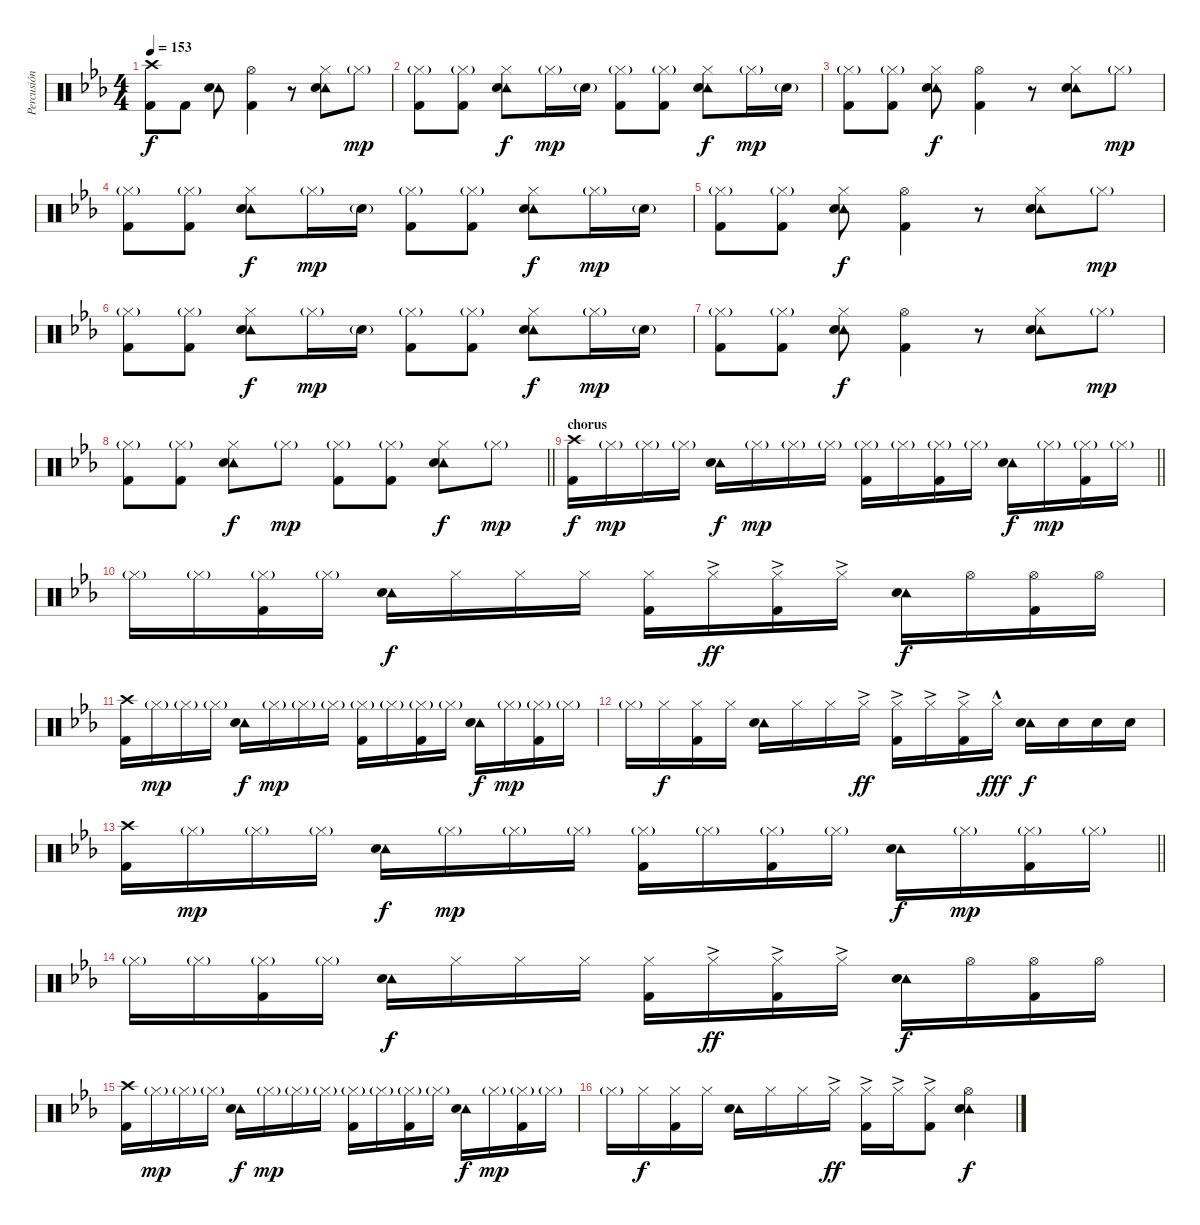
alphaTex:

\track ("Percusión" "Percusión") {instrument percussion}
\staff {score}
\articulation defaults
\ts (4 4)
\tempo 153
\clef neutral
\ks eb
("Crash high (hit)" "Kick (hit) 2").8{dy f} "Kick (hit) 2".8 ("Tambourine (hit)" "Snare (hit) 2").8 ("Hi-Hat (open)" "Kick (hit) 2").4 r.8 ("Tambourine (hit)" "Hi-Hat (closed)" "Snare (hit) 2").8 "Hi-Hat (closed)"{g}.8{dy mp} |
("Hi-Hat (closed)"{g} "Kick (hit) 2").8 ("Hi-Hat (closed)"{g} "Kick (hit) 2").8 ("Tambourine (hit)" "Hi-Hat (closed)" "Snare (hit) 2").8{dy f} "Hi-Hat (closed)"{g}.16{dy mp} "Snare (hit) 2"{g}.16 ("Hi-Hat (closed)"{g} "Kick (hit) 2").8 ("Hi-Hat (closed)"{g} "Kick (hit) 2").8 ("Tambourine (hit)" "Hi-Hat (closed)" "Snare (hit) 2").8{dy f} "Hi-Hat (closed)"{g}.16{dy mp} "Snare (hit) 2"{g}.16 |
("Hi-Hat (closed)"{g} "Kick (hit) 2").8 ("Hi-Hat (closed)"{g} "Kick (hit) 2").8 ("Tambourine (hit)" "Hi-Hat (closed)" "Snare (hit) 2").8{dy f} ("Hi-Hat (open)" "Kick (hit) 2").4 r.8 ("Tambourine (hit)" "Hi-Hat (closed)" "Snare (hit) 2").8 "Hi-Hat (closed)"{g}.8{dy mp} |
("Hi-Hat (closed)"{g} "Kick (hit) 2").8 ("Hi-Hat (closed)"{g} "Kick (hit) 2").8 ("Tambourine (hit)" "Hi-Hat (closed)" "Snare (hit) 2").8{dy f} "Hi-Hat (closed)"{g}.16{dy mp} "Snare (hit) 2"{g}.16 ("Hi-Hat (closed)"{g} "Kick (hit) 2").8 ("Hi-Hat (closed)"{g} "Kick (hit) 2").8 ("Tambourine (hit)" "Hi-Hat (closed)" "Snare (hit) 2").8{dy f} "Hi-Hat (closed)"{g}.16{dy mp} "Snare (hit) 2"{g}.16 |
("Hi-Hat (closed)"{g} "Kick (hit) 2").8 ("Hi-Hat (closed)"{g} "Kick (hit) 2").8 ("Tambourine (hit)" "Hi-Hat (closed)" "Snare (hit) 2").8{dy f} ("Hi-Hat (open)" "Kick (hit) 2").4 r.8 ("Tambourine (hit)" "Hi-Hat (closed)" "Snare (hit) 2").8 "Hi-Hat (closed)"{g}.8{dy mp} |
("Hi-Hat (closed)"{g} "Kick (hit) 2").8 ("Hi-Hat (closed)"{g} "Kick (hit) 2").8 ("Tambourine (hit)" "Hi-Hat (closed)" "Snare (hit) 2").8{dy f} "Hi-Hat (closed)"{g}.16{dy mp} "Snare (hit) 2"{g}.16 ("Hi-Hat (closed)"{g} "Kick (hit) 2").8 ("Hi-Hat (closed)"{g} "Kick (hit) 2").8 ("Tambourine (hit)" "Hi-Hat (closed)" "Snare (hit) 2").8{dy f} "Hi-Hat (closed)"{g}.16{dy mp} "Snare (hit) 2"{g}.16 |
("Hi-Hat (closed)"{g} "Kick (hit) 2").8 ("Hi-Hat (closed)"{g} "Kick (hit) 2").8 ("Tambourine (hit)" "Hi-Hat (closed)" "Snare (hit) 2").8{dy f} ("Hi-Hat (open)" "Kick (hit) 2").4 r.8 ("Tambourine (hit)" "Hi-Hat (closed)" "Snare (hit) 2").8 "Hi-Hat (closed)"{g}.8{dy mp} |
\barLineRight lightlight
("Hi-Hat (closed)"{g} "Kick (hit) 2").8 ("Hi-Hat (closed)"{g} "Kick (hit) 2").8 ("Tambourine (hit)" "Hi-Hat (closed)" "Snare (hit) 2").8{dy f} "Hi-Hat (closed)"{g}.8{dy mp} ("Hi-Hat (closed)"{g} "Kick (hit) 2").8 ("Hi-Hat (closed)"{g} "Kick (hit) 2").8 ("Tambourine (hit)" "Hi-Hat (closed)" "Snare (hit) 2").8{dy f} "Hi-Hat (closed)"{g}.8{dy mp} |
\section ("" "chorus")
\barLineRight lightlight
("Crash high (hit)" "Kick (hit) 2").16{dy f} "Hi-Hat (closed)"{g}.16{dy mp} "Hi-Hat (closed)"{g}.16 "Hi-Hat (closed)"{g}.16 ("Tambourine (hit)" "Snare (hit) 2").16{dy f} "Hi-Hat (closed)"{g}.16{dy mp} "Hi-Hat (closed)"{g}.16 "Hi-Hat (closed)"{g}.16 ("Hi-Hat (closed)"{g} "Kick (hit) 2").16 "Hi-Hat (closed)"{g}.16 ("Hi-Hat (closed)"{g} "Kick (hit) 2").16 "Hi-Hat (closed)"{g}.16 ("Tambourine (hit)" "Snare (hit) 2").16{dy f} "Hi-Hat (closed)"{g}.16{dy mp} ("Hi-Hat (closed)"{g} "Kick (hit) 2").16 "Hi-Hat (closed)"{g}.16 |
"Hi-Hat (closed)"{g}.16 "Hi-Hat (closed)"{g}.16 ("Hi-Hat (closed)"{g} "Kick (hit) 2").16 "Hi-Hat (closed)"{g}.16 ("Tambourine (hit)" "Snare (hit) 2").16{dy f} "Hi-Hat (closed)".16 "Hi-Hat (closed)".16 "Hi-Hat (closed)".16 ("Hi-Hat (closed)" "Kick (hit) 2").16 "Hi-Hat (closed)"{ac}.16{dy ff} ("Hi-Hat (closed)"{ac} "Kick (hit) 2").16 "Hi-Hat (closed)"{ac}.16 ("Tambourine (hit)" "Snare (hit) 2").16{dy f} "Hi-Hat (open)".16 ("Hi-Hat (open)" "Kick (hit) 2").16 "Hi-Hat (open)".16 |
("Crash high (hit)" "Kick (hit) 2").16 "Hi-Hat (closed)"{g}.16{dy mp} "Hi-Hat (closed)"{g}.16 "Hi-Hat (closed)"{g}.16 ("Tambourine (hit)" "Snare (hit) 2").16{dy f} "Hi-Hat (closed)"{g}.16{dy mp} "Hi-Hat (closed)"{g}.16 "Hi-Hat (closed)"{g}.16 ("Hi-Hat (closed)"{g} "Kick (hit) 2").16 "Hi-Hat (closed)"{g}.16 ("Hi-Hat (closed)"{g} "Kick (hit) 2").16 "Hi-Hat (closed)"{g}.16 ("Tambourine (hit)" "Snare (hit) 2").16{dy f} "Hi-Hat (closed)"{g}.16{dy mp} ("Hi-Hat (closed)"{g} "Kick (hit) 2").16 "Hi-Hat (closed)"{g}.16 |
"Hi-Hat (closed)"{g}.16 "Hi-Hat (closed)".16{dy f} ("Hi-Hat (closed)" "Kick (hit) 2").16 "Hi-Hat (closed)".16 ("Tambourine (hit)" "Snare (hit) 2").16 "Hi-Hat (closed)".16 "Hi-Hat (closed)".16 "Hi-Hat (closed)"{ac}.16{dy ff} ("Hi-Hat (closed)"{ac} "Kick (hit) 2").16 "Hi-Hat (closed)"{ac}.16 ("Hi-Hat (closed)"{ac} "Kick (hit) 2").16 "Hi-Hat (closed)"{hac}.16{dy fff} ("Tambourine (hit)" "Snare (hit) 2").16{dy f} "Snare (hit) 2".16 "Snare (hit) 2".16 "Snare (hit) 2".16 |
\barLineRight lightlight
("Crash high (hit)" "Kick (hit) 2").16 "Hi-Hat (closed)"{g}.16{dy mp} "Hi-Hat (closed)"{g}.16 "Hi-Hat (closed)"{g}.16 ("Tambourine (hit)" "Snare (hit) 2").16{dy f} "Hi-Hat (closed)"{g}.16{dy mp} "Hi-Hat (closed)"{g}.16 "Hi-Hat (closed)"{g}.16 ("Hi-Hat (closed)"{g} "Kick (hit) 2").16 "Hi-Hat (closed)"{g}.16 ("Hi-Hat (closed)"{g} "Kick (hit) 2").16 "Hi-Hat (closed)"{g}.16 ("Tambourine (hit)" "Snare (hit) 2").16{dy f} "Hi-Hat (closed)"{g}.16{dy mp} ("Hi-Hat (closed)"{g} "Kick (hit) 2").16 "Hi-Hat (closed)"{g}.16 |
"Hi-Hat (closed)"{g}.16 "Hi-Hat (closed)"{g}.16 ("Hi-Hat (closed)"{g} "Kick (hit) 2").16 "Hi-Hat (closed)"{g}.16 ("Tambourine (hit)" "Snare (hit) 2").16{dy f} "Hi-Hat (closed)".16 "Hi-Hat (closed)".16 "Hi-Hat (closed)".16 ("Hi-Hat (closed)" "Kick (hit) 2").16 "Hi-Hat (closed)"{ac}.16{dy ff} ("Hi-Hat (closed)"{ac} "Kick (hit) 2").16 "Hi-Hat (closed)"{ac}.16 ("Tambourine (hit)" "Snare (hit) 2").16{dy f} "Hi-Hat (open)".16 ("Hi-Hat (open)" "Kick (hit) 2").16 "Hi-Hat (open)".16 |
("Crash high (hit)" "Kick (hit) 2").16 "Hi-Hat (closed)"{g}.16{dy mp} "Hi-Hat (closed)"{g}.16 "Hi-Hat (closed)"{g}.16 ("Tambourine (hit)" "Snare (hit) 2").16{dy f} "Hi-Hat (closed)"{g}.16{dy mp} "Hi-Hat (closed)"{g}.16 "Hi-Hat (closed)"{g}.16 ("Hi-Hat (closed)"{g} "Kick (hit) 2").16 "Hi-Hat (closed)"{g}.16 ("Hi-Hat (closed)"{g} "Kick (hit) 2").16 "Hi-Hat (closed)"{g}.16 ("Tambourine (hit)" "Snare (hit) 2").16{dy f} "Hi-Hat (closed)"{g}.16{dy mp} ("Hi-Hat (closed)"{g} "Kick (hit) 2").16 "Hi-Hat (closed)"{g}.16 |
"Hi-Hat (closed)"{g}.16 "Hi-Hat (closed)".16{dy f} ("Hi-Hat (closed)" "Kick (hit) 2").16 "Hi-Hat (closed)".16 ("Tambourine (hit)" "Snare (hit) 2").16 "Hi-Hat (closed)".16 "Hi-Hat (closed)".16 "Hi-Hat (closed)"{ac}.16{dy ff} ("Hi-Hat (closed)"{ac} "Kick (hit) 2").16 "Hi-Hat (closed)"{ac}.16 ("Hi-Hat (closed)"{ac} "Kick (hit) 2").8 ("Tambourine (hit)" "Hi-Hat (open)" "Snare (hit) 2").4{dy f}
